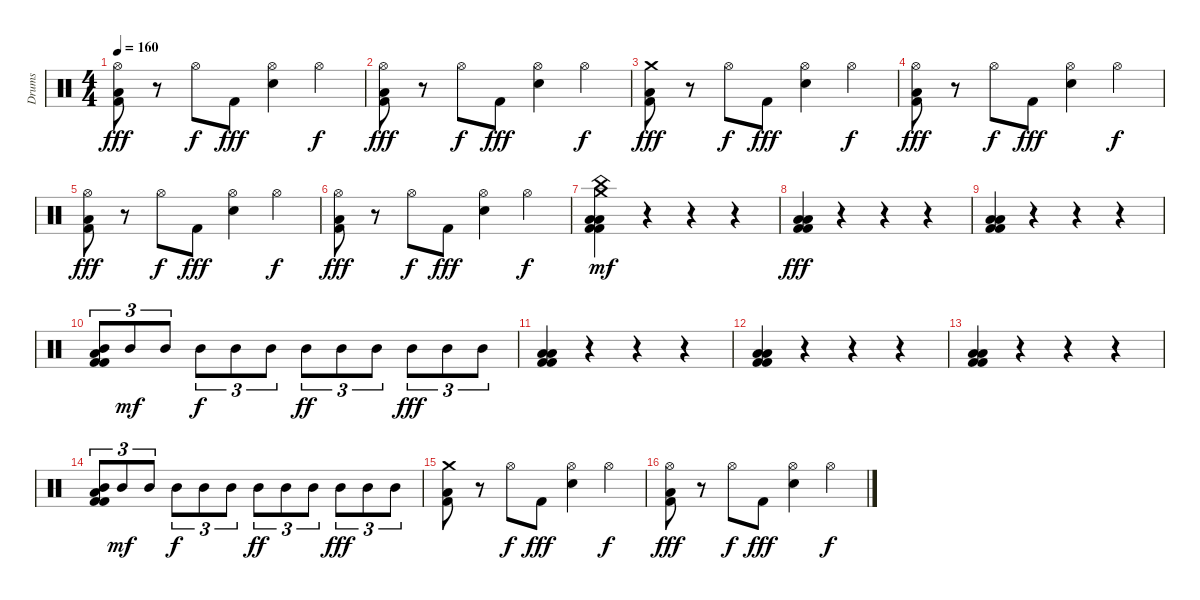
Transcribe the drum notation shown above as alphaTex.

\track ("Drums" "Drums") {instrument percussion}
\staff {score}
\articulation defaults
\ts (4 4)
\tempo 160
\clef neutral
\ks c
("Hi-Hat (open)" "Kick (hit) 2" "Low Tom (hit)").8{dy fff} r.8 "Hi-Hat (open)".8{dy f} "Kick (hit) 2".8{dy fff} ("Hi-Hat (open)" "Electric Snare (hit)").4 "Hi-Hat (open)".4{dy f} |
("Hi-Hat (open)" "Kick (hit) 2" "Low Tom (hit)").8{dy fff} r.8 "Hi-Hat (open)".8{dy f} "Kick (hit) 2".8{dy fff} ("Hi-Hat (open)" "Electric Snare (hit)").4 "Hi-Hat (open)".4{dy f} |
("Crash medium (hit)" "Kick (hit) 2" "Low Tom (hit)").8{dy fff} r.8 "Hi-Hat (open)".8{dy f} "Kick (hit) 2".8{dy fff} ("Hi-Hat (open)" "Electric Snare (hit)").4 "Hi-Hat (open)".4{dy f} |
("Hi-Hat (open)" "Kick (hit) 2" "Low Tom (hit)").8{dy fff} r.8 "Hi-Hat (open)".8{dy f} "Kick (hit) 2".8{dy fff} ("Hi-Hat (open)" "Electric Snare (hit)").4 "Hi-Hat (open)".4{dy f} |
("Hi-Hat (open)" "Kick (hit) 2" "Low Tom (hit)").8{dy fff} r.8 "Hi-Hat (open)".8{dy f} "Kick (hit) 2".8{dy fff} ("Hi-Hat (open)" "Electric Snare (hit)").4 "Hi-Hat (open)".4{dy f} |
("Hi-Hat (open)" "Kick (hit) 2" "Low Tom (hit)").8{dy fff} r.8 "Hi-Hat (open)".8{dy f} "Kick (hit) 2".8{dy fff} ("Hi-Hat (open)" "Electric Snare (hit)").4 "Hi-Hat (open)".4{dy f} |
("Low Tom (hit)" "Kick (hit) 2" "Kick (hit) 2" "Low Tom (hit)" "Crash medium (hit)" "China (hit)").4{dy mf} r.4 r.4 r.4 |
("Low Tom (hit)" "Kick (hit) 2" "Kick (hit) 2" "Low Tom (hit)").4{dy fff} r.4 r.4 r.4 |
("Low Tom (hit)" "Kick (hit) 2" "Kick (hit) 2" "Low Tom (hit)").4 r.4 r.4 r.4 |
("Mid Tom (hit)" "Low Tom (hit)" "Kick (hit) 2" "Kick (hit) 2").8{tu (3 2)} "Mid Tom (hit)".8{tu (3 2) dy mf} "Mid Tom (hit)".8{tu (3 2)} "Mid Tom (hit)".8{tu (3 2) dy f} "Mid Tom (hit)".8{tu (3 2)} "Mid Tom (hit)".8{tu (3 2)} "Mid Tom (hit)".8{tu (3 2) dy ff} "Mid Tom (hit)".8{tu (3 2)} "Mid Tom (hit)".8{tu (3 2)} "Mid Tom (hit)".8{tu (3 2) dy fff} "Mid Tom (hit)".8{tu (3 2)} "Mid Tom (hit)".8{tu (3 2)} |
("Low Tom (hit)" "Kick (hit) 2" "Kick (hit) 2" "Low Tom (hit)").4 r.4 r.4 r.4 |
("Low Tom (hit)" "Kick (hit) 2" "Kick (hit) 2" "Low Tom (hit)").4 r.4 r.4 r.4 |
("Low Tom (hit)" "Kick (hit) 2" "Kick (hit) 2" "Low Tom (hit)").4 r.4 r.4 r.4 |
("Mid Tom (hit)" "Low Tom (hit)" "Kick (hit) 2" "Kick (hit) 2").8{tu (3 2)} "Mid Tom (hit)".8{tu (3 2) dy mf} "Mid Tom (hit)".8{tu (3 2)} "Mid Tom (hit)".8{tu (3 2) dy f} "Mid Tom (hit)".8{tu (3 2)} "Mid Tom (hit)".8{tu (3 2)} "Mid Tom (hit)".8{tu (3 2) dy ff} "Mid Tom (hit)".8{tu (3 2)} "Mid Tom (hit)".8{tu (3 2)} "Mid Tom (hit)".8{tu (3 2) dy fff} "Mid Tom (hit)".8{tu (3 2)} "Mid Tom (hit)".8{tu (3 2)} |
("Crash medium (hit)" "Kick (hit) 2" "Low Tom (hit)").8 r.8 "Hi-Hat (open)".8{dy f} "Kick (hit) 2".8{dy fff} ("Hi-Hat (open)" "Electric Snare (hit)").4 "Hi-Hat (open)".4{dy f} |
("Hi-Hat (open)" "Kick (hit) 2" "Low Tom (hit)").8{dy fff} r.8 "Hi-Hat (open)".8{dy f} "Kick (hit) 2".8{dy fff} ("Hi-Hat (open)" "Electric Snare (hit)").4 "Hi-Hat (open)".4{dy f}
